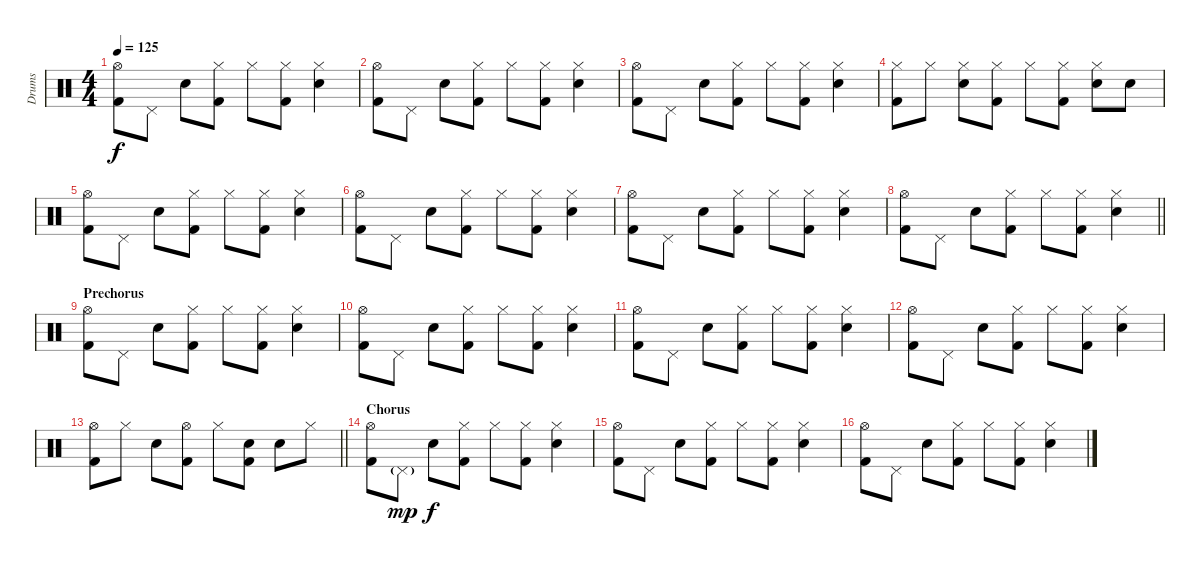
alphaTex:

\track ("Drums" "Drums") {instrument percussion}
\staff {score}
\articulation defaults
\ts (4 4)
\tempo 125
\clef neutral
\ks c
("Hi-Hat (open)" "Kick (hit) 2").8{dy f} "Pedal Hi-Hat (hit)".8 "Hand Clap (hit)".8 ("Hi-Hat (closed)" "Kick (hit) 2").8 "Hi-Hat (closed)".8 ("Hi-Hat (closed)" "Kick (hit) 2").8 ("Hi-Hat (closed)" "Hand Clap (hit)").4 |
("Hi-Hat (open)" "Kick (hit) 2").8 "Pedal Hi-Hat (hit)".8 "Hand Clap (hit)".8 ("Hi-Hat (closed)" "Kick (hit) 2").8 "Hi-Hat (closed)".8 ("Hi-Hat (closed)" "Kick (hit) 2").8 ("Hi-Hat (closed)" "Hand Clap (hit)").4 |
("Hi-Hat (open)" "Kick (hit) 2").8 "Pedal Hi-Hat (hit)".8 "Hand Clap (hit)".8 ("Hi-Hat (closed)" "Kick (hit) 2").8 "Hi-Hat (closed)".8 ("Hi-Hat (closed)" "Kick (hit) 2").8 ("Hi-Hat (closed)" "Hand Clap (hit)").4 |
("Hi-Hat (closed)" "Kick (hit) 2").8 "Hi-Hat (closed)".8 ("Hi-Hat (closed)" "Hand Clap (hit)").8 ("Hi-Hat (closed)" "Kick (hit) 2").8 "Hi-Hat (closed)".8 ("Hi-Hat (closed)" "Kick (hit) 2").8 ("Hi-Hat (closed)" "Hand Clap (hit)").8 "Hand Clap (hit)".8 |
("Hi-Hat (open)" "Kick (hit) 2").8 "Pedal Hi-Hat (hit)".8 "Hand Clap (hit)".8 ("Hi-Hat (closed)" "Kick (hit) 2").8 "Hi-Hat (closed)".8 ("Hi-Hat (closed)" "Kick (hit) 2").8 ("Hi-Hat (closed)" "Hand Clap (hit)").4 |
("Hi-Hat (open)" "Kick (hit) 2").8 "Pedal Hi-Hat (hit)".8 "Hand Clap (hit)".8 ("Hi-Hat (closed)" "Kick (hit) 2").8 "Hi-Hat (closed)".8 ("Hi-Hat (closed)" "Kick (hit) 2").8 ("Hi-Hat (closed)" "Hand Clap (hit)").4 |
("Hi-Hat (open)" "Kick (hit) 2").8 "Pedal Hi-Hat (hit)".8 "Hand Clap (hit)".8 ("Hi-Hat (closed)" "Kick (hit) 2").8 "Hi-Hat (closed)".8 ("Hi-Hat (closed)" "Kick (hit) 2").8 ("Hi-Hat (closed)" "Hand Clap (hit)").4 |
\barLineRight lightlight
("Hi-Hat (open)" "Kick (hit) 2").8 "Pedal Hi-Hat (hit)".8 "Hand Clap (hit)".8 ("Hi-Hat (closed)" "Kick (hit) 2").8 "Hi-Hat (closed)".8 ("Hi-Hat (closed)" "Kick (hit) 2").8 ("Hi-Hat (closed)" "Hand Clap (hit)").4 |
\section ("" "Prechorus")
("Hi-Hat (open)" "Kick (hit) 2").8 "Pedal Hi-Hat (hit)".8 "Hand Clap (hit)".8 ("Hi-Hat (closed)" "Kick (hit) 2").8 "Hi-Hat (closed)".8 ("Hi-Hat (closed)" "Kick (hit) 2").8 ("Hi-Hat (closed)" "Hand Clap (hit)").4 |
("Hi-Hat (open)" "Kick (hit) 2").8 "Pedal Hi-Hat (hit)".8 "Hand Clap (hit)".8 ("Hi-Hat (closed)" "Kick (hit) 2").8 "Hi-Hat (closed)".8 ("Hi-Hat (closed)" "Kick (hit) 2").8 ("Hi-Hat (closed)" "Hand Clap (hit)").4 |
("Hi-Hat (open)" "Kick (hit) 2").8 "Pedal Hi-Hat (hit)".8 "Hand Clap (hit)".8 ("Hi-Hat (closed)" "Kick (hit) 2").8 "Hi-Hat (closed)".8 ("Hi-Hat (closed)" "Kick (hit) 2").8 ("Hi-Hat (closed)" "Hand Clap (hit)").4 |
("Hi-Hat (open)" "Kick (hit) 2").8 "Pedal Hi-Hat (hit)".8 "Hand Clap (hit)".8 ("Hi-Hat (closed)" "Kick (hit) 2").8 "Hi-Hat (closed)".8 ("Hi-Hat (closed)" "Kick (hit) 2").8 ("Hi-Hat (closed)" "Hand Clap (hit)").4 |
\barLineRight lightlight
("Hi-Hat (open)" "Kick (hit) 2").8 "Hi-Hat (closed)".8 "Hand Clap (hit)".8 ("Hi-Hat (open)" "Kick (hit) 2").8 "Hi-Hat (closed)".8 ("Hand Clap (hit)" "Kick (hit) 2").8 "Hand Clap (hit)".8 "Hi-Hat (closed)".8 |
\section ("" "Chorus")
("Hi-Hat (open)" "Kick (hit) 2").8 "Pedal Hi-Hat (hit)"{g}.8{dy mp} "Hand Clap (hit)".8{dy f} ("Hi-Hat (closed)" "Kick (hit) 2").8 "Hi-Hat (closed)".8 ("Hi-Hat (closed)" "Kick (hit) 2").8 ("Hi-Hat (closed)" "Hand Clap (hit)").4 |
("Hi-Hat (open)" "Kick (hit) 2").8 "Pedal Hi-Hat (hit)".8 "Hand Clap (hit)".8 ("Hi-Hat (closed)" "Kick (hit) 2").8 "Hi-Hat (closed)".8 ("Hi-Hat (closed)" "Kick (hit) 2").8 ("Hi-Hat (closed)" "Hand Clap (hit)").4 |
("Hi-Hat (open)" "Kick (hit) 2").8 "Pedal Hi-Hat (hit)".8 "Hand Clap (hit)".8 ("Hi-Hat (closed)" "Kick (hit) 2").8 "Hi-Hat (closed)".8 ("Hi-Hat (closed)" "Kick (hit) 2").8 ("Hi-Hat (closed)" "Hand Clap (hit)").4
